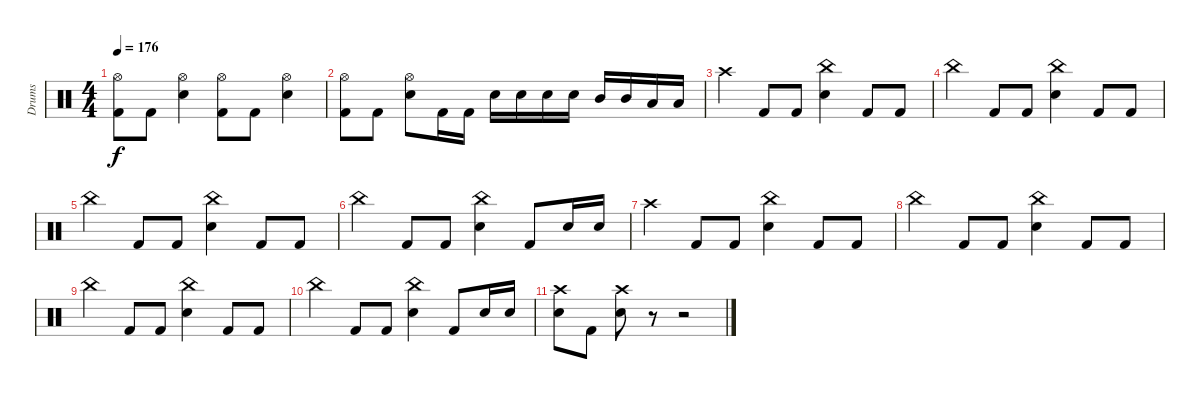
\track ("Drums" "Drums") {instrument percussion}
\staff {score}
\articulation defaults
\ts (4 4)
\tempo 176
\clef neutral
\ks c
("Hi-Hat (open)" "Kick (hit) 2").8{dy f} "Kick (hit) 2".8 ("Hi-Hat (open)" "Electric Snare (hit)").4 ("Hi-Hat (open)" "Kick (hit) 2").8 "Kick (hit) 2".8 ("Hi-Hat (open)" "Electric Snare (hit)").4 |
("Hi-Hat (open)" "Kick (hit) 2").8 "Kick (hit) 2".8 ("Hi-Hat (open)" "Electric Snare (hit)").8 "Kick (hit) 2".16 "Kick (hit) 2".16 "Electric Snare (hit)".16 "Electric Snare (hit)".16 "Electric Snare (hit)".16 "Electric Snare (hit)".16 "Mid Tom (hit)".16 "Mid Tom (hit)".16 "Low Tom (hit)".16 "Low Tom (hit)".16 |
"Crash high (hit)".4 "Kick (hit) 2".8 "Kick (hit) 2".8 ("China (hit)" "Electric Snare (hit)").4 "Kick (hit) 2".8 "Kick (hit) 2".8 |
"China (hit)".4 "Kick (hit) 2".8 "Kick (hit) 2".8 ("China (hit)" "Electric Snare (hit)").4 "Kick (hit) 2".8 "Kick (hit) 2".8 |
"China (hit)".4 "Kick (hit) 2".8 "Kick (hit) 2".8 ("China (hit)" "Electric Snare (hit)").4 "Kick (hit) 2".8 "Kick (hit) 2".8 |
"China (hit)".4 "Kick (hit) 2".8 "Kick (hit) 2".8 ("China (hit)" "Electric Snare (hit)").4 "Kick (hit) 2".8 "Electric Snare (hit)".16 "Electric Snare (hit)".16 |
"Crash high (hit)".4 "Kick (hit) 2".8 "Kick (hit) 2".8 ("China (hit)" "Electric Snare (hit)").4 "Kick (hit) 2".8 "Kick (hit) 2".8 |
"China (hit)".4 "Kick (hit) 2".8 "Kick (hit) 2".8 ("China (hit)" "Electric Snare (hit)").4 "Kick (hit) 2".8 "Kick (hit) 2".8 |
"China (hit)".4 "Kick (hit) 2".8 "Kick (hit) 2".8 ("China (hit)" "Electric Snare (hit)").4 "Kick (hit) 2".8 "Kick (hit) 2".8 |
"China (hit)".4 "Kick (hit) 2".8 "Kick (hit) 2".8 ("China (hit)" "Electric Snare (hit)").4 "Kick (hit) 2".8 "Electric Snare (hit)".16 "Electric Snare (hit)".16 |
("Crash high (hit)" "Electric Snare (hit)").8 "Kick (hit) 2".8 ("Crash high (hit)" "Electric Snare (hit)").8 r.8 r.2
